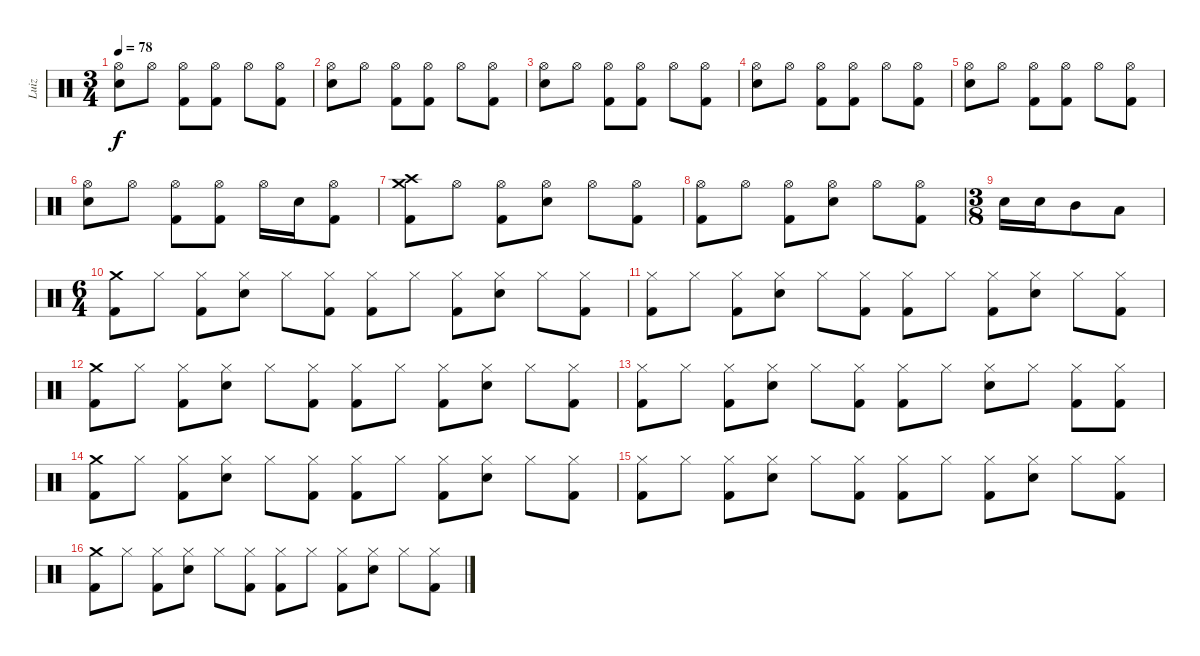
\track ("Luiz" "Luiz") {instrument percussion}
\staff {score}
\articulation defaults
\ts (3 4)
\tempo 78
\clef neutral
\ks c
("Hi-Hat (open)" "Snare (hit) 2").8{dy f} "Hi-Hat (open)".8 ("Hi-Hat (open)" "Kick (hit) 2").8 ("Hi-Hat (open)" "Kick (hit) 2").8 "Hi-Hat (open)".8 ("Hi-Hat (open)" "Kick (hit) 2").8 |
("Hi-Hat (open)" "Snare (hit) 2").8 "Hi-Hat (open)".8 ("Hi-Hat (open)" "Kick (hit) 2").8 ("Hi-Hat (open)" "Kick (hit) 2").8 "Hi-Hat (open)".8 ("Hi-Hat (open)" "Kick (hit) 2").8 |
("Hi-Hat (open)" "Snare (hit) 2").8 "Hi-Hat (open)".8 ("Hi-Hat (open)" "Kick (hit) 2").8 ("Hi-Hat (open)" "Kick (hit) 2").8 "Hi-Hat (open)".8 ("Hi-Hat (open)" "Kick (hit) 2").8 |
("Hi-Hat (open)" "Snare (hit) 2").8 "Hi-Hat (open)".8 ("Hi-Hat (open)" "Kick (hit) 2").8 ("Hi-Hat (open)" "Kick (hit) 2").8 "Hi-Hat (open)".8 ("Hi-Hat (open)" "Kick (hit) 2").8 |
("Hi-Hat (open)" "Snare (hit) 2").8 "Hi-Hat (open)".8 ("Hi-Hat (open)" "Kick (hit) 2").8 ("Hi-Hat (open)" "Kick (hit) 2").8 "Hi-Hat (open)".8 ("Hi-Hat (open)" "Kick (hit) 2").8 |
("Hi-Hat (open)" "Snare (hit) 2").8 "Hi-Hat (open)".8 ("Hi-Hat (open)" "Kick (hit) 2").8 ("Hi-Hat (open)" "Kick (hit) 2").8 "Hi-Hat (open)".16 "Snare (hit) 2".16 ("Hi-Hat (open)" "Kick (hit) 2").8 |
("Crash medium (hit)" "Crash high (hit)" "Kick (hit) 2").8 "Hi-Hat (open)".8 ("Hi-Hat (open)" "Kick (hit) 2").8 ("Hi-Hat (open)" "Snare (hit) 2").8 "Hi-Hat (open)".8 ("Hi-Hat (open)" "Kick (hit) 2").8 |
("Hi-Hat (open)" "Kick (hit) 2").8 "Hi-Hat (open)".8 ("Hi-Hat (open)" "Kick (hit) 2").8 ("Hi-Hat (open)" "Snare (hit) 2").8 "Hi-Hat (open)".8 ("Hi-Hat (open)" "Kick (hit) 2").8 |
\ts (3 8)
"Snare (hit) 2".16 "Snare (hit) 2".16 "Mid Tom (hit)".8 "Low Tom (hit)".8 |
\ts (6 4)
("Crash medium (hit)" "Kick (hit) 2").8 "Hi-Hat (closed)".8 ("Hi-Hat (closed)" "Kick (hit) 2").8 ("Hi-Hat (closed)" "Snare (hit) 2").8 "Hi-Hat (closed)".8 ("Hi-Hat (closed)" "Kick (hit) 2").8 ("Hi-Hat (closed)" "Kick (hit) 2").8 "Hi-Hat (closed)".8 ("Hi-Hat (closed)" "Kick (hit) 2").8 ("Hi-Hat (closed)" "Snare (hit) 2").8 "Hi-Hat (closed)".8 ("Hi-Hat (closed)" "Kick (hit) 2").8 |
("Hi-Hat (closed)" "Kick (hit) 2").8 "Hi-Hat (closed)".8 ("Hi-Hat (closed)" "Kick (hit) 2").8 ("Hi-Hat (closed)" "Snare (hit) 2").8 "Hi-Hat (closed)".8 ("Hi-Hat (closed)" "Kick (hit) 2").8 ("Hi-Hat (closed)" "Kick (hit) 2").8 "Hi-Hat (closed)".8 ("Hi-Hat (closed)" "Kick (hit) 2").8 ("Hi-Hat (closed)" "Snare (hit) 2").8 "Hi-Hat (closed)".8 ("Hi-Hat (closed)" "Kick (hit) 2").8 |
("Crash medium (hit)" "Kick (hit) 2").8 "Hi-Hat (closed)".8 ("Hi-Hat (closed)" "Kick (hit) 2").8 ("Hi-Hat (closed)" "Snare (hit) 2").8 "Hi-Hat (closed)".8 ("Hi-Hat (closed)" "Kick (hit) 2").8 ("Hi-Hat (closed)" "Kick (hit) 2").8 "Hi-Hat (closed)".8 ("Hi-Hat (closed)" "Kick (hit) 2").8 ("Hi-Hat (closed)" "Snare (hit) 2").8 "Hi-Hat (closed)".8 ("Hi-Hat (closed)" "Kick (hit) 2").8 |
("Hi-Hat (closed)" "Kick (hit) 2").8 "Hi-Hat (closed)".8 ("Hi-Hat (closed)" "Kick (hit) 2").8 ("Hi-Hat (closed)" "Snare (hit) 2").8 "Hi-Hat (closed)".8 ("Hi-Hat (closed)" "Kick (hit) 2").8 ("Hi-Hat (closed)" "Kick (hit) 2").8 "Hi-Hat (closed)".8 ("Hi-Hat (closed)" "Snare (hit) 2").8 "Hi-Hat (closed)".8 ("Hi-Hat (closed)" "Kick (hit) 2").8 ("Hi-Hat (closed)" "Kick (hit) 2").8 |
("Crash medium (hit)" "Kick (hit) 2").8 "Hi-Hat (closed)".8 ("Hi-Hat (closed)" "Kick (hit) 2").8 ("Hi-Hat (closed)" "Snare (hit) 2").8 "Hi-Hat (closed)".8 ("Hi-Hat (closed)" "Kick (hit) 2").8 ("Hi-Hat (closed)" "Kick (hit) 2").8 "Hi-Hat (closed)".8 ("Hi-Hat (closed)" "Kick (hit) 2").8 ("Hi-Hat (closed)" "Snare (hit) 2").8 "Hi-Hat (closed)".8 ("Hi-Hat (closed)" "Kick (hit) 2").8 |
("Hi-Hat (closed)" "Kick (hit) 2").8 "Hi-Hat (closed)".8 ("Hi-Hat (closed)" "Kick (hit) 2").8 ("Hi-Hat (closed)" "Snare (hit) 2").8 "Hi-Hat (closed)".8 ("Hi-Hat (closed)" "Kick (hit) 2").8 ("Hi-Hat (closed)" "Kick (hit) 2").8 "Hi-Hat (closed)".8 ("Hi-Hat (closed)" "Kick (hit) 2").8 ("Hi-Hat (closed)" "Snare (hit) 2").8 "Hi-Hat (closed)".8 ("Hi-Hat (closed)" "Kick (hit) 2").8 |
("Crash medium (hit)" "Kick (hit) 2").8 "Hi-Hat (closed)".8 ("Hi-Hat (closed)" "Kick (hit) 2").8 ("Hi-Hat (closed)" "Snare (hit) 2").8 "Hi-Hat (closed)".8 ("Hi-Hat (closed)" "Kick (hit) 2").8 ("Hi-Hat (closed)" "Kick (hit) 2").8 "Hi-Hat (closed)".8 ("Hi-Hat (closed)" "Kick (hit) 2").8 ("Hi-Hat (closed)" "Snare (hit) 2").8 "Hi-Hat (closed)".8 ("Hi-Hat (closed)" "Kick (hit) 2").8
